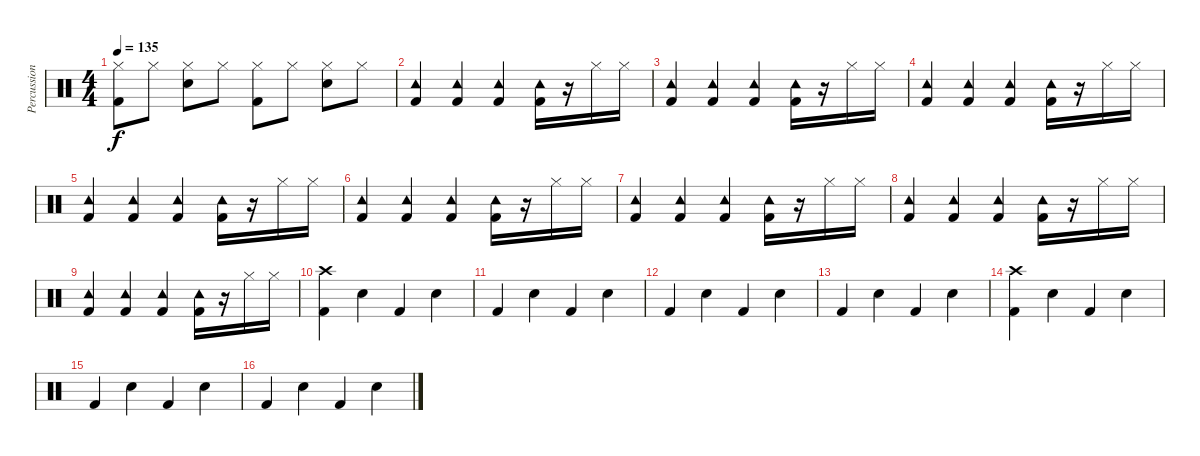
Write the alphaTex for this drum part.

\track ("Percussion" "Percussion") {instrument percussion}
\staff {score}
\articulation defaults
\ts (4 4)
\tempo 135
\clef neutral
\ks c
("Hi-Hat (closed)" "Kick (hit) 2").8{dy f} "Hi-Hat (closed)".8 ("Hi-Hat (closed)" "Snare (hit) 2").8 "Hi-Hat (closed)".8 ("Hi-Hat (closed)" "Kick (hit) 2").8 "Hi-Hat (closed)".8 ("Hi-Hat (closed)" "Snare (hit) 2").8 "Hi-Hat (closed)".8 |
("Tambourine (hit)" "Kick (hit) 2").4 ("Tambourine (hit)" "Kick (hit) 2").4 ("Tambourine (hit)" "Kick (hit) 2").4 ("Tambourine (hit)" "Kick (hit) 2").16 r.16 "Hi-Hat (closed)".16 "Hi-Hat (closed)".16 |
("Tambourine (hit)" "Kick (hit) 2").4 ("Tambourine (hit)" "Kick (hit) 2").4 ("Tambourine (hit)" "Kick (hit) 2").4 ("Tambourine (hit)" "Kick (hit) 2").16 r.16 "Hi-Hat (closed)".16 "Hi-Hat (closed)".16 |
("Tambourine (hit)" "Kick (hit) 2").4 ("Tambourine (hit)" "Kick (hit) 2").4 ("Tambourine (hit)" "Kick (hit) 2").4 ("Tambourine (hit)" "Kick (hit) 2").16 r.16 "Hi-Hat (closed)".16 "Hi-Hat (closed)".16 |
("Tambourine (hit)" "Kick (hit) 2").4 ("Tambourine (hit)" "Kick (hit) 2").4 ("Tambourine (hit)" "Kick (hit) 2").4 ("Tambourine (hit)" "Kick (hit) 2").16 r.16 "Hi-Hat (closed)".16 "Hi-Hat (closed)".16 |
("Tambourine (hit)" "Kick (hit) 2").4 ("Tambourine (hit)" "Kick (hit) 2").4 ("Tambourine (hit)" "Kick (hit) 2").4 ("Tambourine (hit)" "Kick (hit) 2").16 r.16 "Hi-Hat (closed)".16 "Hi-Hat (closed)".16 |
("Tambourine (hit)" "Kick (hit) 2").4 ("Tambourine (hit)" "Kick (hit) 2").4 ("Tambourine (hit)" "Kick (hit) 2").4 ("Tambourine (hit)" "Kick (hit) 2").16 r.16 "Hi-Hat (closed)".16 "Hi-Hat (closed)".16 |
("Tambourine (hit)" "Kick (hit) 2").4 ("Tambourine (hit)" "Kick (hit) 2").4 ("Tambourine (hit)" "Kick (hit) 2").4 ("Tambourine (hit)" "Kick (hit) 2").16 r.16 "Hi-Hat (closed)".16 "Hi-Hat (closed)".16 |
("Tambourine (hit)" "Kick (hit) 2").4 ("Tambourine (hit)" "Kick (hit) 2").4 ("Tambourine (hit)" "Kick (hit) 2").4 ("Tambourine (hit)" "Kick (hit) 2").16 r.16 "Hi-Hat (closed)".16 "Hi-Hat (closed)".16 |
("Crash high (hit)" "Kick (hit) 2").4 "Snare (hit) 2".4 "Kick (hit) 2".4 "Snare (hit) 2".4 |
"Kick (hit) 2".4 "Snare (hit) 2".4 "Kick (hit) 2".4 "Snare (hit) 2".4 |
"Kick (hit) 2".4 "Snare (hit) 2".4 "Kick (hit) 2".4 "Snare (hit) 2".4 |
"Kick (hit) 2".4 "Snare (hit) 2".4 "Kick (hit) 2".4 "Snare (hit) 2".4 |
("Crash high (hit)" "Kick (hit) 2").4 "Snare (hit) 2".4 "Kick (hit) 2".4 "Snare (hit) 2".4 |
"Kick (hit) 2".4 "Snare (hit) 2".4 "Kick (hit) 2".4 "Snare (hit) 2".4 |
"Kick (hit) 2".4 "Snare (hit) 2".4 "Kick (hit) 2".4 "Snare (hit) 2".4
